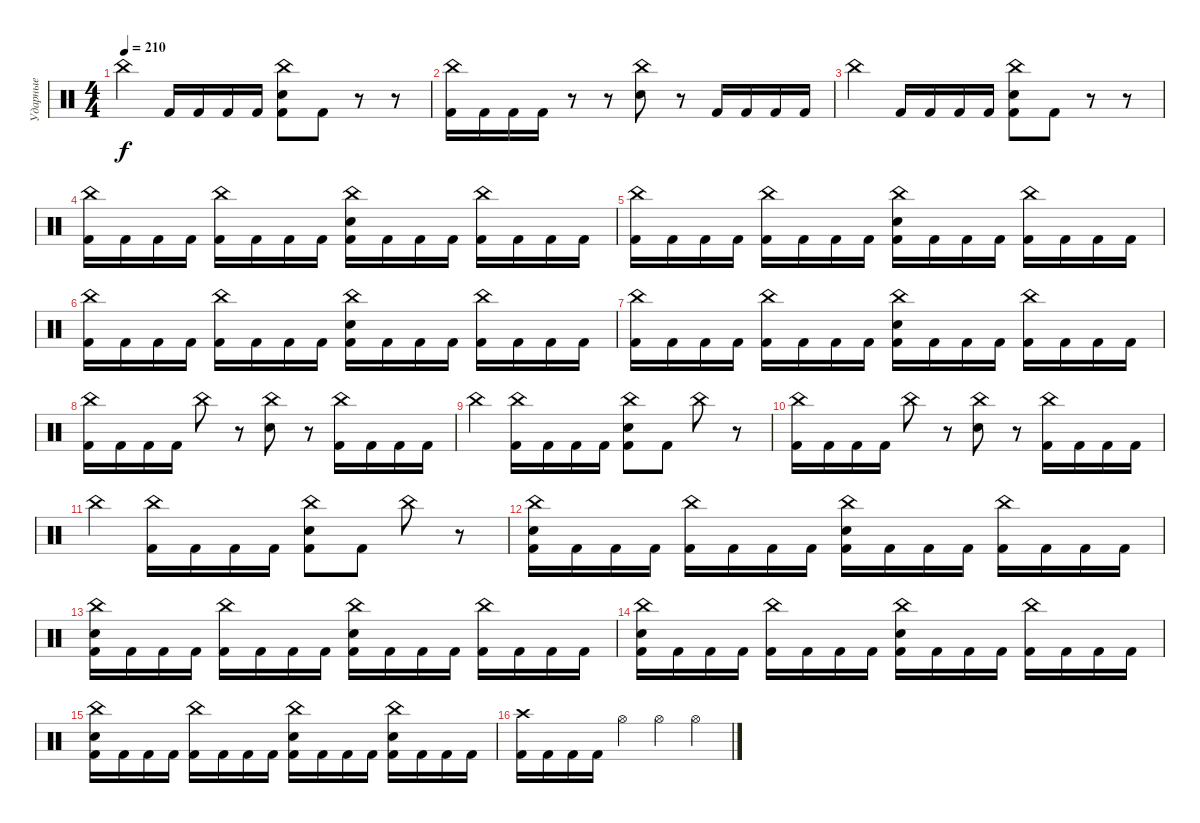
\track ("Ударные" "Ударные") {instrument percussion}
\staff {score}
\articulation defaults
\ts (4 4)
\tempo 210
\clef neutral
\ks c "China (hit)".4{dy f} "Kick (hit) 2".16 "Kick (hit) 2".16 "Kick (hit) 2".16 "Kick (hit) 2".16
("China (hit)" "Snare (hit) 2" "Kick (hit) 2").8 "Kick (hit) 2".8 r.8 r.8 |
("China (hit)" "Kick (hit) 2").16 "Kick (hit) 2".16 "Kick (hit) 2".16 "Kick (hit) 2".16 r.8 r.8 ("China (hit)" "Snare (hit) 2").8 r.8 "Kick (hit) 2".16 "Kick (hit) 2".16 "Kick (hit) 2".16 "Kick (hit) 2".16 |
"China (hit)".4 "Kick (hit) 2".16 "Kick (hit) 2".16 "Kick (hit) 2".16 "Kick (hit) 2".16 ("China (hit)" "Snare (hit) 2" "Kick (hit) 2").8 "Kick (hit) 2".8 r.8 r.8 |
("China (hit)" "Kick (hit) 2").16 "Kick (hit) 2".16 "Kick (hit) 2".16 "Kick (hit) 2".16 ("China (hit)" "Kick (hit) 2").16 "Kick (hit) 2".16 "Kick (hit) 2".16 "Kick (hit) 2".16 ("China (hit)" "Snare (hit) 2" "Kick (hit) 2").16 "Kick (hit) 2".16 "Kick (hit) 2".16 "Kick (hit) 2".16 ("China (hit)" "Kick (hit) 2").16 "Kick (hit) 2".16 "Kick (hit) 2".16 "Kick (hit) 2".16 |
("China (hit)" "Kick (hit) 2").16 "Kick (hit) 2".16 "Kick (hit) 2".16 "Kick (hit) 2".16 ("China (hit)" "Kick (hit) 2").16 "Kick (hit) 2".16 "Kick (hit) 2".16 "Kick (hit) 2".16 ("China (hit)" "Snare (hit) 2" "Kick (hit) 2").16 "Kick (hit) 2".16 "Kick (hit) 2".16 "Kick (hit) 2".16 ("China (hit)" "Kick (hit) 2").16 "Kick (hit) 2".16 "Kick (hit) 2".16 "Kick (hit) 2".16 |
("China (hit)" "Kick (hit) 2").16 "Kick (hit) 2".16 "Kick (hit) 2".16 "Kick (hit) 2".16 ("China (hit)" "Kick (hit) 2").16 "Kick (hit) 2".16 "Kick (hit) 2".16 "Kick (hit) 2".16 ("China (hit)" "Snare (hit) 2" "Kick (hit) 2").16 "Kick (hit) 2".16 "Kick (hit) 2".16 "Kick (hit) 2".16 ("China (hit)" "Kick (hit) 2").16 "Kick (hit) 2".16 "Kick (hit) 2".16 "Kick (hit) 2".16 |
("China (hit)" "Kick (hit) 2").16 "Kick (hit) 2".16 "Kick (hit) 2".16 "Kick (hit) 2".16 ("China (hit)" "Kick (hit) 2").16 "Kick (hit) 2".16 "Kick (hit) 2".16 "Kick (hit) 2".16 ("China (hit)" "Snare (hit) 2" "Kick (hit) 2").16 "Kick (hit) 2".16 "Kick (hit) 2".16 "Kick (hit) 2".16 ("China (hit)" "Kick (hit) 2").16 "Kick (hit) 2".16 "Kick (hit) 2".16 "Kick (hit) 2".16 |
("China (hit)" "Kick (hit) 2").16 "Kick (hit) 2".16 "Kick (hit) 2".16 "Kick (hit) 2".16 "China (hit)".8 r.8 ("China (hit)" "Snare (hit) 2").8 r.8 ("China (hit)" "Kick (hit) 2").16 "Kick (hit) 2".16 "Kick (hit) 2".16 "Kick (hit) 2".16 |
"China (hit)".4 ("China (hit)" "Kick (hit) 2").16 "Kick (hit) 2".16 "Kick (hit) 2".16 "Kick (hit) 2".16 ("China (hit)" "Snare (hit) 2" "Kick (hit) 2").8 "Kick (hit) 2".8 "China (hit)".8 r.8 |
("China (hit)" "Kick (hit) 2").16 "Kick (hit) 2".16 "Kick (hit) 2".16 "Kick (hit) 2".16 "China (hit)".8 r.8 ("China (hit)" "Snare (hit) 2").8 r.8 ("China (hit)" "Kick (hit) 2").16 "Kick (hit) 2".16 "Kick (hit) 2".16 "Kick (hit) 2".16 |
"China (hit)".4 ("China (hit)" "Kick (hit) 2").16 "Kick (hit) 2".16 "Kick (hit) 2".16 "Kick (hit) 2".16 ("China (hit)" "Snare (hit) 2" "Kick (hit) 2").8 "Kick (hit) 2".8 "China (hit)".8 r.8 |
("China (hit)" "Snare (hit) 2" "Kick (hit) 2").16 "Kick (hit) 2".16 "Kick (hit) 2".16 "Kick (hit) 2".16 ("China (hit)" "Kick (hit) 2").16 "Kick (hit) 2".16 "Kick (hit) 2".16 "Kick (hit) 2".16 ("China (hit)" "Snare (hit) 2" "Kick (hit) 2").16 "Kick (hit) 2".16 "Kick (hit) 2".16 "Kick (hit) 2".16 ("China (hit)" "Kick (hit) 2").16 "Kick (hit) 2".16 "Kick (hit) 2".16 "Kick (hit) 2".16 |
("China (hit)" "Snare (hit) 2" "Kick (hit) 2").16 "Kick (hit) 2".16 "Kick (hit) 2".16 "Kick (hit) 2".16 ("China (hit)" "Kick (hit) 2").16 "Kick (hit) 2".16 "Kick (hit) 2".16 "Kick (hit) 2".16 ("China (hit)" "Snare (hit) 2" "Kick (hit) 2").16 "Kick (hit) 2".16 "Kick (hit) 2".16 "Kick (hit) 2".16 ("China (hit)" "Kick (hit) 2").16 "Kick (hit) 2".16 "Kick (hit) 2".16 "Kick (hit) 2".16 |
("China (hit)" "Snare (hit) 2" "Kick (hit) 2").16 "Kick (hit) 2".16 "Kick (hit) 2".16 "Kick (hit) 2".16 ("China (hit)" "Kick (hit) 2").16 "Kick (hit) 2".16 "Kick (hit) 2".16 "Kick (hit) 2".16 ("China (hit)" "Snare (hit) 2" "Kick (hit) 2").16 "Kick (hit) 2".16 "Kick (hit) 2".16 "Kick (hit) 2".16 ("China (hit)" "Kick (hit) 2").16 "Kick (hit) 2".16 "Kick (hit) 2".16 "Kick (hit) 2".16 |
("China (hit)" "Snare (hit) 2" "Kick (hit) 2").16 "Kick (hit) 2".16 "Kick (hit) 2".16 "Kick (hit) 2".16 ("China (hit)" "Kick (hit) 2").16 "Kick (hit) 2".16 "Kick (hit) 2".16 "Kick (hit) 2".16 ("China (hit)" "Snare (hit) 2" "Kick (hit) 2").16 "Kick (hit) 2".16 "Kick (hit) 2".16 "Kick (hit) 2".16 ("China (hit)" "Snare (hit) 2" "Kick (hit) 2").16 "Kick (hit) 2".16 "Kick (hit) 2".16 "Kick (hit) 2".16 |
("Crash high (hit)" "Kick (hit) 2").16 "Kick (hit) 2".16 "Kick (hit) 2".16 "Kick (hit) 2".16 "Hi-Hat (open)".4 "Hi-Hat (open)".4 "Hi-Hat (open)".4
